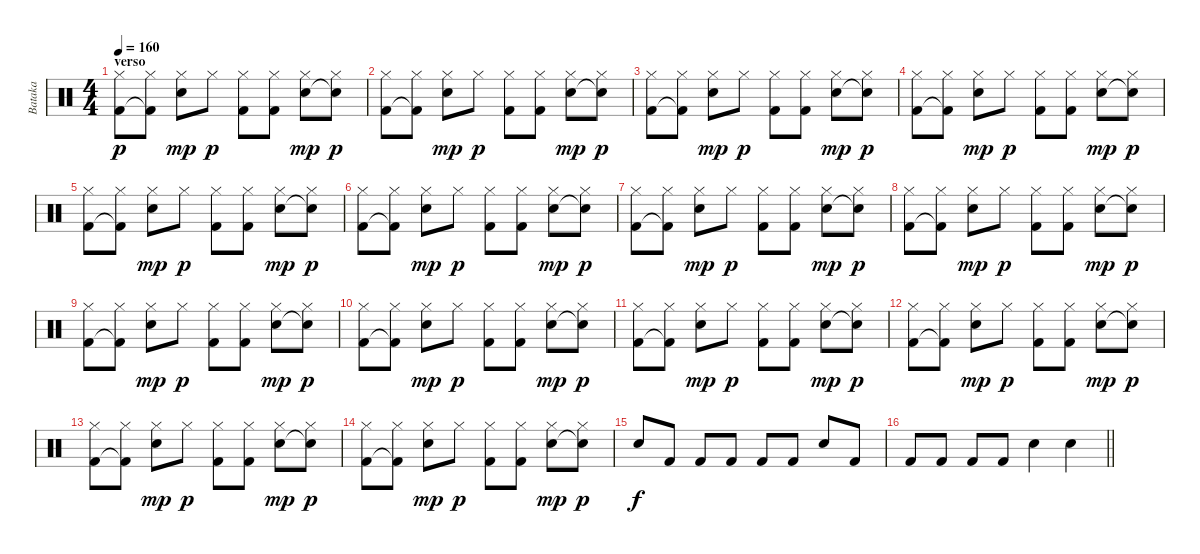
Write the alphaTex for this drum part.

\track ("Bataka" "Bataka") {instrument percussion}
\staff {score}
\articulation defaults
\ts (4 4)
\section ("" "verso")
\tempo 160
\clef neutral
\ks c
("Hi-Hat (closed)" "Kick (hit) 2").8{dy p} ("Hi-Hat (closed)" "Kick (hit) 2"{t}).8 ("Hi-Hat (closed)" "Electric Snare (hit)").8{dy mp} "Hi-Hat (closed)".8{dy p} ("Hi-Hat (closed)" "Kick (hit) 2").8 ("Hi-Hat (closed)" "Kick (hit) 2").8 ("Hi-Hat (closed)" "Electric Snare (hit)").8{dy mp} ("Hi-Hat (closed)" "Snare (hit)"{t}).8{dy p} |
("Hi-Hat (closed)" "Kick (hit) 2").8 ("Hi-Hat (closed)" "Kick (hit) 2"{t}).8 ("Hi-Hat (closed)" "Electric Snare (hit)").8{dy mp} "Hi-Hat (closed)".8{dy p} ("Hi-Hat (closed)" "Kick (hit) 2").8 ("Hi-Hat (closed)" "Kick (hit) 2").8 ("Hi-Hat (closed)" "Electric Snare (hit)").8{dy mp} ("Hi-Hat (closed)" "Snare (hit)"{t}).8{dy p} |
("Hi-Hat (closed)" "Kick (hit) 2").8 ("Hi-Hat (closed)" "Kick (hit) 2"{t}).8 ("Hi-Hat (closed)" "Electric Snare (hit)").8{dy mp} "Hi-Hat (closed)".8{dy p} ("Hi-Hat (closed)" "Kick (hit) 2").8 ("Hi-Hat (closed)" "Kick (hit) 2").8 ("Hi-Hat (closed)" "Electric Snare (hit)").8{dy mp} ("Hi-Hat (closed)" "Snare (hit)"{t}).8{dy p} |
("Hi-Hat (closed)" "Kick (hit) 2").8 ("Hi-Hat (closed)" "Kick (hit) 2"{t}).8 ("Hi-Hat (closed)" "Electric Snare (hit)").8{dy mp} "Hi-Hat (closed)".8{dy p} ("Hi-Hat (closed)" "Kick (hit) 2").8 ("Hi-Hat (closed)" "Kick (hit) 2").8 ("Hi-Hat (closed)" "Electric Snare (hit)").8{dy mp} ("Hi-Hat (closed)" "Snare (hit)"{t}).8{dy p} |
("Hi-Hat (closed)" "Kick (hit) 2").8 ("Hi-Hat (closed)" "Kick (hit) 2"{t}).8 ("Hi-Hat (closed)" "Electric Snare (hit)").8{dy mp} "Hi-Hat (closed)".8{dy p} ("Hi-Hat (closed)" "Kick (hit) 2").8 ("Hi-Hat (closed)" "Kick (hit) 2").8 ("Hi-Hat (closed)" "Electric Snare (hit)").8{dy mp} ("Hi-Hat (closed)" "Snare (hit)"{t}).8{dy p} |
("Hi-Hat (closed)" "Kick (hit) 2").8 ("Hi-Hat (closed)" "Kick (hit) 2"{t}).8 ("Hi-Hat (closed)" "Electric Snare (hit)").8{dy mp} "Hi-Hat (closed)".8{dy p} ("Hi-Hat (closed)" "Kick (hit) 2").8 ("Hi-Hat (closed)" "Kick (hit) 2").8 ("Hi-Hat (closed)" "Electric Snare (hit)").8{dy mp} ("Hi-Hat (closed)" "Snare (hit)"{t}).8{dy p} |
("Hi-Hat (closed)" "Kick (hit) 2").8 ("Hi-Hat (closed)" "Kick (hit) 2"{t}).8 ("Hi-Hat (closed)" "Electric Snare (hit)").8{dy mp} "Hi-Hat (closed)".8{dy p} ("Hi-Hat (closed)" "Kick (hit) 2").8 ("Hi-Hat (closed)" "Kick (hit) 2").8 ("Hi-Hat (closed)" "Electric Snare (hit)").8{dy mp} ("Hi-Hat (closed)" "Snare (hit)"{t}).8{dy p} |
("Hi-Hat (closed)" "Kick (hit) 2").8 ("Hi-Hat (closed)" "Kick (hit) 2"{t}).8 ("Hi-Hat (closed)" "Electric Snare (hit)").8{dy mp} "Hi-Hat (closed)".8{dy p} ("Hi-Hat (closed)" "Kick (hit) 2").8 ("Hi-Hat (closed)" "Kick (hit) 2").8 ("Hi-Hat (closed)" "Electric Snare (hit)").8{dy mp} ("Hi-Hat (closed)" "Snare (hit)"{t}).8{dy p} |
("Hi-Hat (closed)" "Kick (hit) 2").8 ("Hi-Hat (closed)" "Kick (hit) 2"{t}).8 ("Hi-Hat (closed)" "Electric Snare (hit)").8{dy mp} "Hi-Hat (closed)".8{dy p} ("Hi-Hat (closed)" "Kick (hit) 2").8 ("Hi-Hat (closed)" "Kick (hit) 2").8 ("Hi-Hat (closed)" "Electric Snare (hit)").8{dy mp} ("Hi-Hat (closed)" "Snare (hit)"{t}).8{dy p} |
("Hi-Hat (closed)" "Kick (hit) 2").8 ("Hi-Hat (closed)" "Kick (hit) 2"{t}).8 ("Hi-Hat (closed)" "Electric Snare (hit)").8{dy mp} "Hi-Hat (closed)".8{dy p} ("Hi-Hat (closed)" "Kick (hit) 2").8 ("Hi-Hat (closed)" "Kick (hit) 2").8 ("Hi-Hat (closed)" "Electric Snare (hit)").8{dy mp} ("Hi-Hat (closed)" "Snare (hit)"{t}).8{dy p} |
("Hi-Hat (closed)" "Kick (hit) 2").8 ("Hi-Hat (closed)" "Kick (hit) 2"{t}).8 ("Hi-Hat (closed)" "Electric Snare (hit)").8{dy mp} "Hi-Hat (closed)".8{dy p} ("Hi-Hat (closed)" "Kick (hit) 2").8 ("Hi-Hat (closed)" "Kick (hit) 2").8 ("Hi-Hat (closed)" "Electric Snare (hit)").8{dy mp} ("Hi-Hat (closed)" "Snare (hit)"{t}).8{dy p} |
("Hi-Hat (closed)" "Kick (hit) 2").8 ("Hi-Hat (closed)" "Kick (hit) 2"{t}).8 ("Hi-Hat (closed)" "Electric Snare (hit)").8{dy mp} "Hi-Hat (closed)".8{dy p} ("Hi-Hat (closed)" "Kick (hit) 2").8 ("Hi-Hat (closed)" "Kick (hit) 2").8 ("Hi-Hat (closed)" "Electric Snare (hit)").8{dy mp} ("Hi-Hat (closed)" "Snare (hit)"{t}).8{dy p} |
("Hi-Hat (closed)" "Kick (hit) 2").8 ("Hi-Hat (closed)" "Kick (hit) 2"{t}).8 ("Hi-Hat (closed)" "Electric Snare (hit)").8{dy mp} "Hi-Hat (closed)".8{dy p} ("Hi-Hat (closed)" "Kick (hit) 2").8 ("Hi-Hat (closed)" "Kick (hit) 2").8 ("Hi-Hat (closed)" "Electric Snare (hit)").8{dy mp} ("Hi-Hat (closed)" "Snare (hit)"{t}).8{dy p} |
("Hi-Hat (closed)" "Kick (hit) 2").8 ("Hi-Hat (closed)" "Kick (hit) 2"{t}).8 ("Hi-Hat (closed)" "Electric Snare (hit)").8{dy mp} "Hi-Hat (closed)".8{dy p} ("Hi-Hat (closed)" "Kick (hit) 2").8 ("Hi-Hat (closed)" "Kick (hit) 2").8 ("Hi-Hat (closed)" "Electric Snare (hit)").8{dy mp} ("Hi-Hat (closed)" "Snare (hit)"{t}).8{dy p} |
"Electric Snare (hit)".8{dy f} "Kick (hit) 2".8 "Kick (hit) 2".8 "Kick (hit) 2".8 "Kick (hit) 2".8 "Kick (hit) 2".8 "Electric Snare (hit)".8 "Kick (hit) 2".8 |
\barLineRight lightlight "Kick (hit) 2".8 "Kick (hit) 2".8 "Kick (hit) 2".8 "Kick (hit) 2".8 "Electric Snare (hit)".4 "Electric Snare (hit)".4
